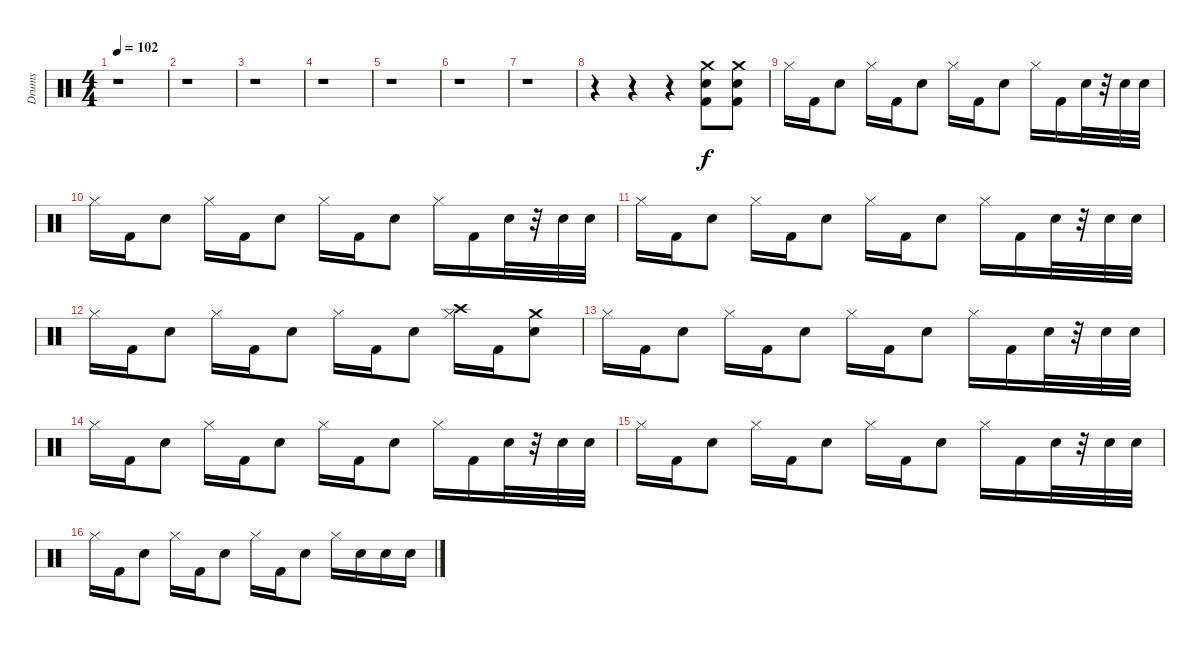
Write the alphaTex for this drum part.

\track ("Drums" "Drums") {instrument percussion}
\staff {score}
\articulation defaults
\ts (4 4)
\tempo 102
\clef neutral
\ks c
r.1{dy f} |
r.1 |
r.1 |
r.1 |
r.1 |
r.1 |
r.1 |
r.4 r.4 r.4 ("Crash medium (hit)" "Electric Snare (hit)" "Kick (hit) 2").8 ("Crash medium (hit)" "Electric Snare (hit)" "Kick (hit) 2").8 |
"Hi-Hat (closed)".16 "Kick (hit) 2".16 "Electric Snare (hit)".8 "Hi-Hat (closed)".16 "Kick (hit) 2".16 "Electric Snare (hit)".8 "Hi-Hat (closed)".16 "Kick (hit) 2".16 "Electric Snare (hit)".8 "Hi-Hat (closed)".16 "Kick (hit) 2".16 "Electric Snare (hit)".32 r.32 "Electric Snare (hit)".32 "Electric Snare (hit)".32 |
"Hi-Hat (closed)".16 "Kick (hit) 2".16 "Electric Snare (hit)".8 "Hi-Hat (closed)".16 "Kick (hit) 2".16 "Electric Snare (hit)".8 "Hi-Hat (closed)".16 "Kick (hit) 2".16 "Electric Snare (hit)".8 "Hi-Hat (closed)".16 "Kick (hit) 2".16 "Electric Snare (hit)".32 r.32 "Electric Snare (hit)".32 "Electric Snare (hit)".32 |
"Hi-Hat (closed)".16 "Kick (hit) 2".16 "Electric Snare (hit)".8 "Hi-Hat (closed)".16 "Kick (hit) 2".16 "Electric Snare (hit)".8 "Hi-Hat (closed)".16 "Kick (hit) 2".16 "Electric Snare (hit)".8 "Hi-Hat (closed)".16 "Kick (hit) 2".16 "Electric Snare (hit)".32 r.32 "Electric Snare (hit)".32 "Electric Snare (hit)".32 |
"Hi-Hat (closed)".16 "Kick (hit) 2".16 "Electric Snare (hit)".8 "Hi-Hat (closed)".16 "Kick (hit) 2".16 "Electric Snare (hit)".8 "Hi-Hat (closed)".16 "Kick (hit) 2".16 "Electric Snare (hit)".8 ("Crash high (hit)" "Hi-Hat (closed)").16 "Kick (hit) 2".16 ("Crash medium (hit)" "Electric Snare (hit)").8 |
"Hi-Hat (closed)".16 "Kick (hit) 2".16 "Electric Snare (hit)".8 "Hi-Hat (closed)".16 "Kick (hit) 2".16 "Electric Snare (hit)".8 "Hi-Hat (closed)".16 "Kick (hit) 2".16 "Electric Snare (hit)".8 "Hi-Hat (closed)".16 "Kick (hit) 2".16 "Electric Snare (hit)".32 r.32 "Electric Snare (hit)".32 "Electric Snare (hit)".32 |
"Hi-Hat (closed)".16 "Kick (hit) 2".16 "Electric Snare (hit)".8 "Hi-Hat (closed)".16 "Kick (hit) 2".16 "Electric Snare (hit)".8 "Hi-Hat (closed)".16 "Kick (hit) 2".16 "Electric Snare (hit)".8 "Hi-Hat (closed)".16 "Kick (hit) 2".16 "Electric Snare (hit)".32 r.32 "Electric Snare (hit)".32 "Electric Snare (hit)".32 |
"Hi-Hat (closed)".16 "Kick (hit) 2".16 "Electric Snare (hit)".8 "Hi-Hat (closed)".16 "Kick (hit) 2".16 "Electric Snare (hit)".8 "Hi-Hat (closed)".16 "Kick (hit) 2".16 "Electric Snare (hit)".8 "Hi-Hat (closed)".16 "Kick (hit) 2".16 "Electric Snare (hit)".32 r.32 "Electric Snare (hit)".32 "Electric Snare (hit)".32 |
"Hi-Hat (closed)".16 "Kick (hit) 2".16 "Electric Snare (hit)".8 "Hi-Hat (closed)".16 "Kick (hit) 2".16 "Electric Snare (hit)".8 "Hi-Hat (closed)".16 "Kick (hit) 2".16 "Electric Snare (hit)".8 "Hi-Hat (closed)".16 "Electric Snare (hit)".16 "Electric Snare (hit)".16 "Electric Snare (hit)".16
